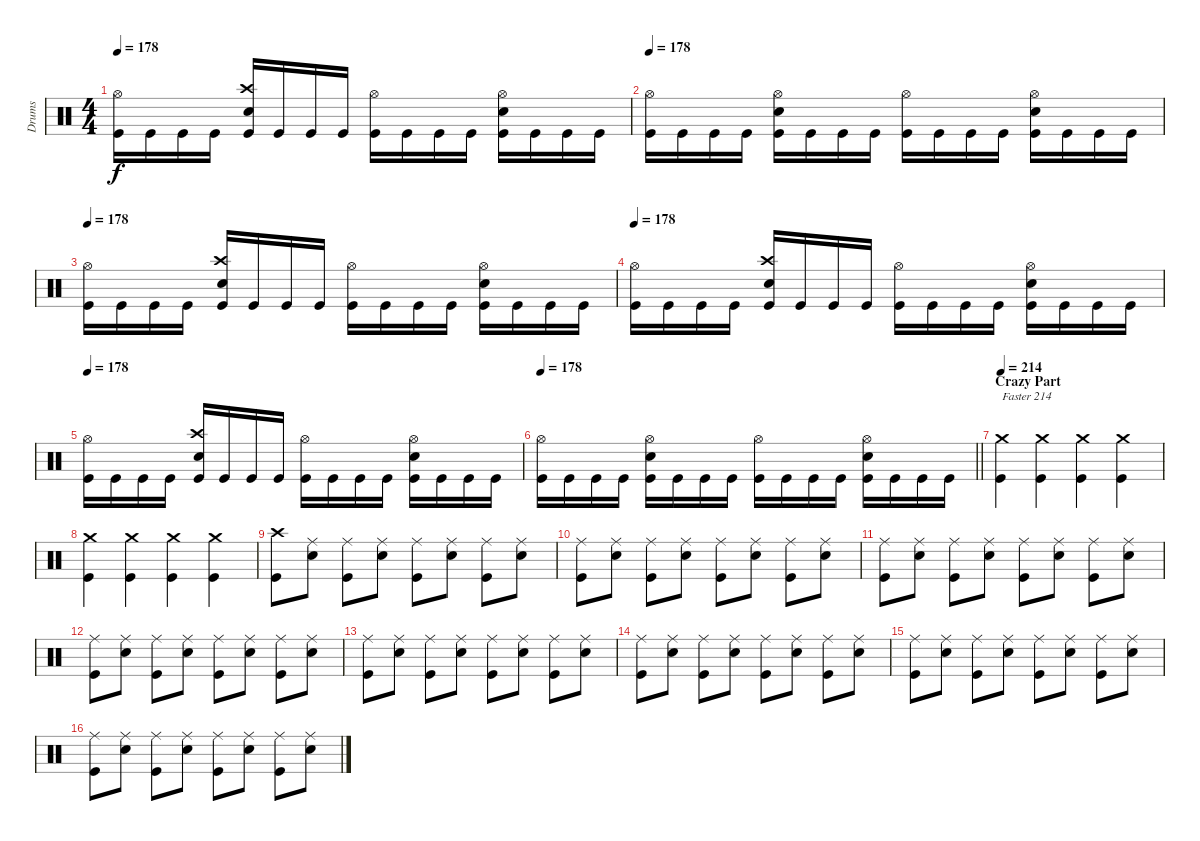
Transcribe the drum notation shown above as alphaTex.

\track ("Drums" "Drums") {instrument percussion}
\staff {score}
\articulation defaults
\ts (4 4)
\tempo 178
\clef neutral
\ks c
("Hi-Hat (open)" "Kick (hit)").16{dy f} "Kick (hit)".16 "Kick (hit)".16 "Kick (hit)".16 ("Crash high (hit)" "Snare (hit) 2" "Kick (hit)").16 "Kick (hit)".16 "Kick (hit)".16 "Kick (hit)".16 ("Hi-Hat (open)" "Kick (hit)").16 "Kick (hit)".16 "Kick (hit)".16 "Kick (hit)".16 ("Hi-Hat (open)" "Snare (hit) 2" "Kick (hit)").16 "Kick (hit)".16 "Kick (hit)".16 "Kick (hit)".16 |
\tempo 178
("Hi-Hat (open)" "Kick (hit)").16 "Kick (hit)".16 "Kick (hit)".16 "Kick (hit)".16 ("Hi-Hat (open)" "Snare (hit) 2" "Kick (hit)").16 "Kick (hit)".16 "Kick (hit)".16 "Kick (hit)".16 ("Hi-Hat (open)" "Kick (hit)").16 "Kick (hit)".16 "Kick (hit)".16 "Kick (hit)".16 ("Hi-Hat (open)" "Snare (hit) 2" "Kick (hit)").16 "Kick (hit)".16 "Kick (hit)".16 "Kick (hit)".16 |
\tempo 178
("Hi-Hat (open)" "Kick (hit)").16 "Kick (hit)".16 "Kick (hit)".16 "Kick (hit)".16 ("Crash high (hit)" "Snare (hit) 2" "Kick (hit)").16 "Kick (hit)".16 "Kick (hit)".16 "Kick (hit)".16 ("Hi-Hat (open)" "Kick (hit)").16 "Kick (hit)".16 "Kick (hit)".16 "Kick (hit)".16 ("Hi-Hat (open)" "Snare (hit) 2" "Kick (hit)").16 "Kick (hit)".16 "Kick (hit)".16 "Kick (hit)".16 |
\tempo 178
("Hi-Hat (open)" "Kick (hit)").16 "Kick (hit)".16 "Kick (hit)".16 "Kick (hit)".16 ("Crash high (hit)" "Snare (hit) 2" "Kick (hit)").16 "Kick (hit)".16 "Kick (hit)".16 "Kick (hit)".16 ("Hi-Hat (open)" "Kick (hit)").16 "Kick (hit)".16 "Kick (hit)".16 "Kick (hit)".16 ("Hi-Hat (open)" "Snare (hit) 2" "Kick (hit)").16 "Kick (hit)".16 "Kick (hit)".16 "Kick (hit)".16 |
\tempo 178
("Hi-Hat (open)" "Kick (hit)").16 "Kick (hit)".16 "Kick (hit)".16 "Kick (hit)".16 ("Crash high (hit)" "Snare (hit) 2" "Kick (hit)").16 "Kick (hit)".16 "Kick (hit)".16 "Kick (hit)".16 ("Hi-Hat (open)" "Kick (hit)").16 "Kick (hit)".16 "Kick (hit)".16 "Kick (hit)".16 ("Hi-Hat (open)" "Snare (hit) 2" "Kick (hit)").16 "Kick (hit)".16 "Kick (hit)".16 "Kick (hit)".16 |
\tempo 178
\barLineRight lightlight
("Hi-Hat (open)" "Kick (hit)").16 "Kick (hit)".16 "Kick (hit)".16 "Kick (hit)".16 ("Hi-Hat (open)" "Snare (hit) 2" "Kick (hit)").16 "Kick (hit)".16 "Kick (hit)".16 "Kick (hit)".16 ("Hi-Hat (open)" "Kick (hit)").16 "Kick (hit)".16 "Kick (hit)".16 "Kick (hit)".16 ("Hi-Hat (open)" "Snare (hit) 2" "Kick (hit)").16 "Kick (hit)".16 "Kick (hit)".16 "Kick (hit)".16 |
\section ("" "Crazy Part")
\tempo 214
("Crash medium (hit)" "Kick (hit)").4{txt "Faster 214"} ("Crash medium (hit)" "Kick (hit)").4 ("Crash medium (hit)" "Kick (hit)").4 ("Crash medium (hit)" "Kick (hit)").4 |
("Crash medium (hit)" "Kick (hit)").4 ("Crash medium (hit)" "Kick (hit)").4 ("Crash medium (hit)" "Kick (hit)").4 ("Crash medium (hit)" "Kick (hit)").4 |
("Crash high (hit)" "Kick (hit)").8 ("Ride (middle)" "Snare (hit) 2").8 ("Ride (middle)" "Kick (hit)").8 ("Ride (middle)" "Snare (hit) 2").8 ("Ride (middle)" "Kick (hit)").8 ("Ride (middle)" "Snare (hit) 2").8 ("Ride (middle)" "Kick (hit)").8 ("Ride (middle)" "Snare (hit) 2").8 |
("Ride (middle)" "Kick (hit)").8 ("Ride (middle)" "Snare (hit) 2").8 ("Ride (middle)" "Kick (hit)").8 ("Ride (middle)" "Snare (hit) 2").8 ("Ride (middle)" "Kick (hit)").8 ("Ride (middle)" "Snare (hit) 2").8 ("Ride (middle)" "Kick (hit)").8 ("Ride (middle)" "Snare (hit) 2").8 |
("Ride (middle)" "Kick (hit)").8 ("Ride (middle)" "Snare (hit) 2").8 ("Ride (middle)" "Kick (hit)").8 ("Ride (middle)" "Snare (hit) 2").8 ("Ride (middle)" "Kick (hit)").8 ("Ride (middle)" "Snare (hit) 2").8 ("Ride (middle)" "Kick (hit)").8 ("Ride (middle)" "Snare (hit) 2").8 |
("Ride (middle)" "Kick (hit)").8 ("Ride (middle)" "Snare (hit) 2").8 ("Ride (middle)" "Kick (hit)").8 ("Ride (middle)" "Snare (hit) 2").8 ("Ride (middle)" "Kick (hit)").8 ("Ride (middle)" "Snare (hit) 2").8 ("Ride (middle)" "Kick (hit)").8 ("Ride (middle)" "Snare (hit) 2").8 |
("Ride (middle)" "Kick (hit)").8 ("Ride (middle)" "Snare (hit) 2").8 ("Ride (middle)" "Kick (hit)").8 ("Ride (middle)" "Snare (hit) 2").8 ("Ride (middle)" "Kick (hit)").8 ("Ride (middle)" "Snare (hit) 2").8 ("Ride (middle)" "Kick (hit)").8 ("Ride (middle)" "Snare (hit) 2").8 |
("Ride (middle)" "Kick (hit)").8 ("Ride (middle)" "Snare (hit) 2").8 ("Ride (middle)" "Kick (hit)").8 ("Ride (middle)" "Snare (hit) 2").8 ("Ride (middle)" "Kick (hit)").8 ("Ride (middle)" "Snare (hit) 2").8 ("Ride (middle)" "Kick (hit)").8 ("Ride (middle)" "Snare (hit) 2").8 |
("Ride (middle)" "Kick (hit)").8 ("Ride (middle)" "Snare (hit) 2").8 ("Ride (middle)" "Kick (hit)").8 ("Ride (middle)" "Snare (hit) 2").8 ("Ride (middle)" "Kick (hit)").8 ("Ride (middle)" "Snare (hit) 2").8 ("Ride (middle)" "Kick (hit)").8 ("Ride (middle)" "Snare (hit) 2").8 |
("Ride (middle)" "Kick (hit)").8 ("Ride (middle)" "Snare (hit) 2").8 ("Ride (middle)" "Kick (hit)").8 ("Ride (middle)" "Snare (hit) 2").8 ("Ride (middle)" "Kick (hit)").8 ("Ride (middle)" "Snare (hit) 2").8 ("Ride (middle)" "Kick (hit)").8 ("Ride (middle)" "Snare (hit) 2").8
